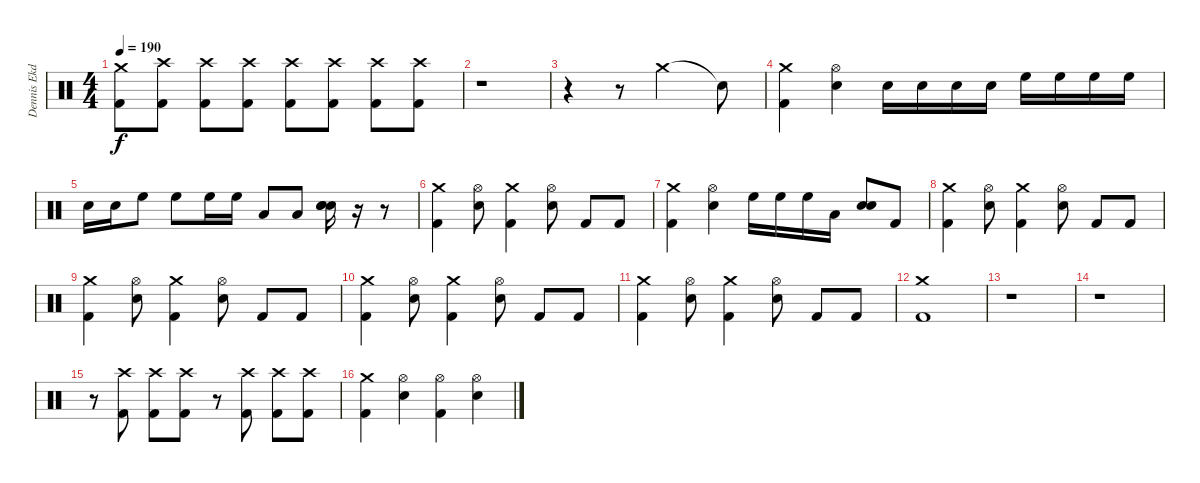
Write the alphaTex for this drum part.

\track ("Dennis Ekdahl" "Dennis Ekd") {instrument percussion}
\staff {score}
\articulation defaults
\ts (4 4)
\tempo 190
\clef neutral
\ks c
("Crash medium (hit)" "Kick (hit) 2").8{dy f} ("Crash high (hit)" "Kick (hit) 2").8 ("Crash high (hit)" "Kick (hit) 2").8 ("Crash high (hit)" "Kick (hit) 2").8 ("Crash high (hit)" "Kick (hit) 2").8 ("Crash high (hit)" "Kick (hit) 2").8 ("Crash high (hit)" "Kick (hit) 2").8 ("Crash high (hit)" "Kick (hit) 2").8 |
r.1 |
r.4 r.8 "Crash medium (hit)".2 "Snare (hit)"{t}.8 |
("Crash medium (hit)" "Kick (hit) 2").4 ("Hi-Hat (open)" "Snare (hit) 2").4 "Snare (hit) 2".16 "Snare (hit) 2".16 "Snare (hit) 2".16 "Snare (hit) 2".16 "High Floor Tom (hit)".16 "High Floor Tom (hit)".16 "High Floor Tom (hit)".16 "High Floor Tom (hit)".16 |
"Snare (hit) 2".16 "Snare (hit) 2".16 "High Floor Tom (hit)".8 "High Floor Tom (hit)".8 "High Floor Tom (hit)".16 "High Floor Tom (hit)".16 "Low Tom (hit)".8 "Low Tom (hit)".8 ("Snare (hit) 2" "Snare (hit) 2" "Snare (hit) 2").16 r.16 r.8 |
("Crash medium (hit)" "Kick (hit) 2").4 ("Hi-Hat (open)" "Snare (hit) 2").8 ("Crash medium (hit)" "Kick (hit) 2").4 ("Hi-Hat (open)" "Snare (hit) 2").8 "Kick (hit) 2".8 "Kick (hit) 2".8 |
("Crash medium (hit)" "Kick (hit) 2").4 ("Hi-Hat (open)" "Snare (hit) 2").4 "High Floor Tom (hit)".16 "High Floor Tom (hit)".16 "High Floor Tom (hit)".16 "Low Tom (hit)".16 ("Snare (hit) 2" "Snare (hit) 2").8 "Kick (hit) 2".8 |
("Crash medium (hit)" "Kick (hit) 2").4 ("Hi-Hat (open)" "Snare (hit) 2").8 ("Crash medium (hit)" "Kick (hit) 2").4 ("Hi-Hat (open)" "Snare (hit) 2").8 "Kick (hit) 2".8 "Kick (hit) 2".8 |
("Crash medium (hit)" "Kick (hit) 2").4 ("Hi-Hat (open)" "Snare (hit) 2").8 ("Crash medium (hit)" "Kick (hit) 2").4 ("Hi-Hat (open)" "Snare (hit) 2").8 "Kick (hit) 2".8 "Kick (hit) 2".8 |
("Crash medium (hit)" "Kick (hit) 2").4 ("Hi-Hat (open)" "Snare (hit) 2").8 ("Crash medium (hit)" "Kick (hit) 2").4 ("Hi-Hat (open)" "Snare (hit) 2").8 "Kick (hit) 2".8 "Kick (hit) 2".8 |
("Crash medium (hit)" "Kick (hit) 2").4 ("Hi-Hat (open)" "Snare (hit) 2").8 ("Crash medium (hit)" "Kick (hit) 2").4 ("Hi-Hat (open)" "Snare (hit) 2").8 "Kick (hit) 2".8 "Kick (hit) 2".8 |
("Crash medium (hit)" "Kick (hit) 2").1 |
r.1 |
r.1 |
r.8 ("Crash high (hit)" "Kick (hit) 2").8 ("Crash high (hit)" "Kick (hit) 2").8 ("Crash high (hit)" "Kick (hit) 2").8 r.8 ("Crash high (hit)" "Kick (hit) 2").8 ("Crash high (hit)" "Kick (hit) 2").8 ("Crash high (hit)" "Kick (hit) 2").8 |
("Crash medium (hit)" "Kick (hit) 2").4 ("Hi-Hat (open)" "Snare (hit) 2").4 ("Hi-Hat (open)" "Kick (hit) 2").4 ("Hi-Hat (open)" "Snare (hit) 2").4
